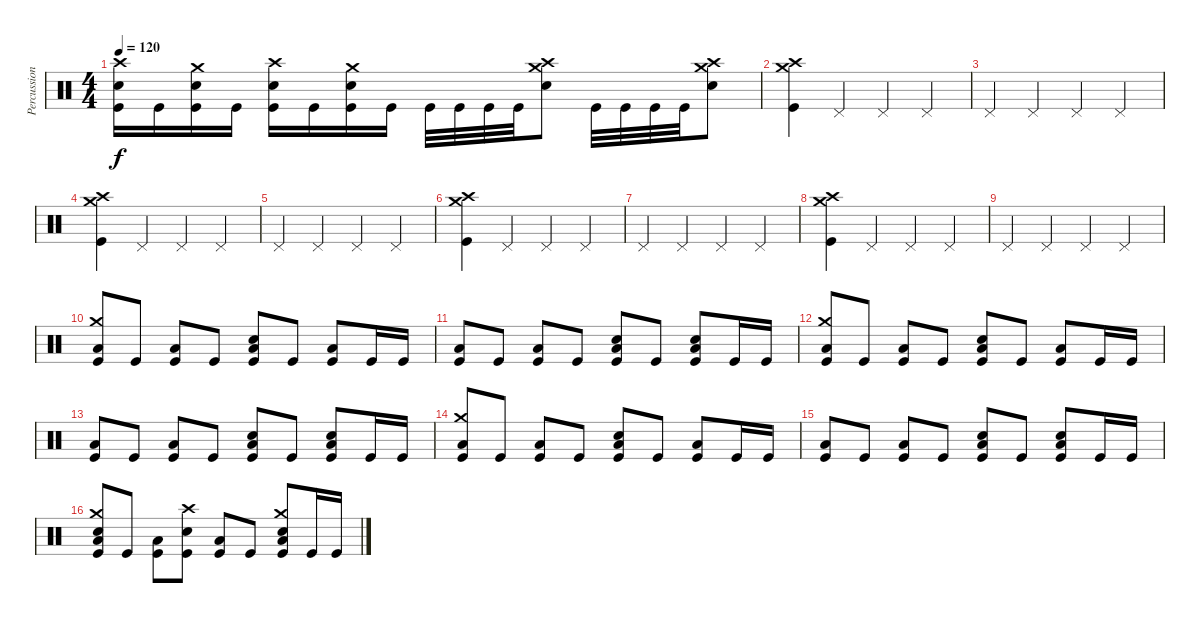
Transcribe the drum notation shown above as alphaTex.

\track ("Percussion" "Percussion") {instrument percussion}
\staff {score}
\articulation defaults
\ts (4 4)
\tempo 120
\clef neutral
\ks c
("Crash high (hit)" "Snare (hit) 2" "Kick (hit)").16{dy f} "Kick (hit)".16 ("Crash medium (hit)" "Snare (hit) 2" "Kick (hit)").16 "Kick (hit)".16 ("Crash high (hit)" "Snare (hit) 2" "Kick (hit)").16 "Kick (hit)".16 ("Crash medium (hit)" "Snare (hit) 2" "Kick (hit)").16 "Kick (hit)".16 "Kick (hit)".32 "Kick (hit)".32 "Kick (hit)".32 "Kick (hit)".32 ("Crash medium (hit)" "Crash high (hit)" "Snare (hit) 2").8 "Kick (hit)".32 "Kick (hit)".32 "Kick (hit)".32 "Kick (hit)".32 ("Crash medium (hit)" "Crash high (hit)" "Snare (hit) 2").8 |
("Crash medium (hit)" "Crash high (hit)" "Kick (hit)").4 "Pedal Hi-Hat (hit)".4 "Pedal Hi-Hat (hit)".4 "Pedal Hi-Hat (hit)".4 |
"Pedal Hi-Hat (hit)".4 "Pedal Hi-Hat (hit)".4 "Pedal Hi-Hat (hit)".4 "Pedal Hi-Hat (hit)".4 |
("Crash medium (hit)" "Crash high (hit)" "Kick (hit)").4 "Pedal Hi-Hat (hit)".4 "Pedal Hi-Hat (hit)".4 "Pedal Hi-Hat (hit)".4 |
"Pedal Hi-Hat (hit)".4 "Pedal Hi-Hat (hit)".4 "Pedal Hi-Hat (hit)".4 "Pedal Hi-Hat (hit)".4 |
("Crash medium (hit)" "Crash high (hit)" "Kick (hit)").4 "Pedal Hi-Hat (hit)".4 "Pedal Hi-Hat (hit)".4 "Pedal Hi-Hat (hit)".4 |
"Pedal Hi-Hat (hit)".4 "Pedal Hi-Hat (hit)".4 "Pedal Hi-Hat (hit)".4 "Pedal Hi-Hat (hit)".4 |
("Crash medium (hit)" "Crash high (hit)" "Kick (hit)").4 "Pedal Hi-Hat (hit)".4 "Pedal Hi-Hat (hit)".4 "Pedal Hi-Hat (hit)".4 |
"Pedal Hi-Hat (hit)".4 "Pedal Hi-Hat (hit)".4 "Pedal Hi-Hat (hit)".4 "Pedal Hi-Hat (hit)".4 |
("Crash medium (hit)" "Low Floor Tom (hit)" "Kick (hit)").8 "Kick (hit)".8 ("Low Floor Tom (hit)" "Kick (hit)").8 "Kick (hit)".8 ("Snare (hit) 2" "Low Floor Tom (hit)" "Kick (hit)").8 "Kick (hit)".8 ("Low Floor Tom (hit)" "Kick (hit)").8 "Kick (hit)".16 "Kick (hit)".16 |
("Low Floor Tom (hit)" "Kick (hit)").8 "Kick (hit)".8 ("Low Floor Tom (hit)" "Kick (hit)").8 "Kick (hit)".8 ("Snare (hit) 2" "Low Floor Tom (hit)" "Kick (hit)").8 "Kick (hit)".8 ("Snare (hit) 2" "Low Floor Tom (hit)" "Kick (hit)").8 "Kick (hit)".16 "Kick (hit)".16 |
("Crash medium (hit)" "Low Floor Tom (hit)" "Kick (hit)").8 "Kick (hit)".8 ("Low Floor Tom (hit)" "Kick (hit)").8 "Kick (hit)".8 ("Snare (hit) 2" "Low Floor Tom (hit)" "Kick (hit)").8 "Kick (hit)".8 ("Low Floor Tom (hit)" "Kick (hit)").8 "Kick (hit)".16 "Kick (hit)".16 |
("Low Floor Tom (hit)" "Kick (hit)").8 "Kick (hit)".8 ("Low Floor Tom (hit)" "Kick (hit)").8 "Kick (hit)".8 ("Snare (hit) 2" "Low Floor Tom (hit)" "Kick (hit)").8 "Kick (hit)".8 ("Snare (hit) 2" "Low Floor Tom (hit)" "Kick (hit)").8 "Kick (hit)".16 "Kick (hit)".16 |
("Crash medium (hit)" "Low Floor Tom (hit)" "Kick (hit)").8 "Kick (hit)".8 ("Low Floor Tom (hit)" "Kick (hit)").8 "Kick (hit)".8 ("Snare (hit) 2" "Low Floor Tom (hit)" "Kick (hit)").8 "Kick (hit)".8 ("Low Floor Tom (hit)" "Kick (hit)").8 "Kick (hit)".16 "Kick (hit)".16 |
("Low Floor Tom (hit)" "Kick (hit)").8 "Kick (hit)".8 ("Low Floor Tom (hit)" "Kick (hit)").8 "Kick (hit)".8 ("Snare (hit) 2" "Low Floor Tom (hit)" "Kick (hit)").8 "Kick (hit)".8 ("Snare (hit) 2" "Low Floor Tom (hit)" "Kick (hit)").8 "Kick (hit)".16 "Kick (hit)".16 |
("Crash medium (hit)" "Snare (hit) 2" "Low Floor Tom (hit)" "Kick (hit)").8 "Kick (hit)".8 ("Low Floor Tom (hit)" "Kick (hit)").8 ("Crash high (hit)" "Snare (hit) 2" "Kick (hit)").8 ("Low Floor Tom (hit)" "Kick (hit)").8 "Kick (hit)".8 ("Crash medium (hit)" "Snare (hit) 2" "Low Floor Tom (hit)" "Kick (hit)").8 "Kick (hit)".16 "Kick (hit)".16
